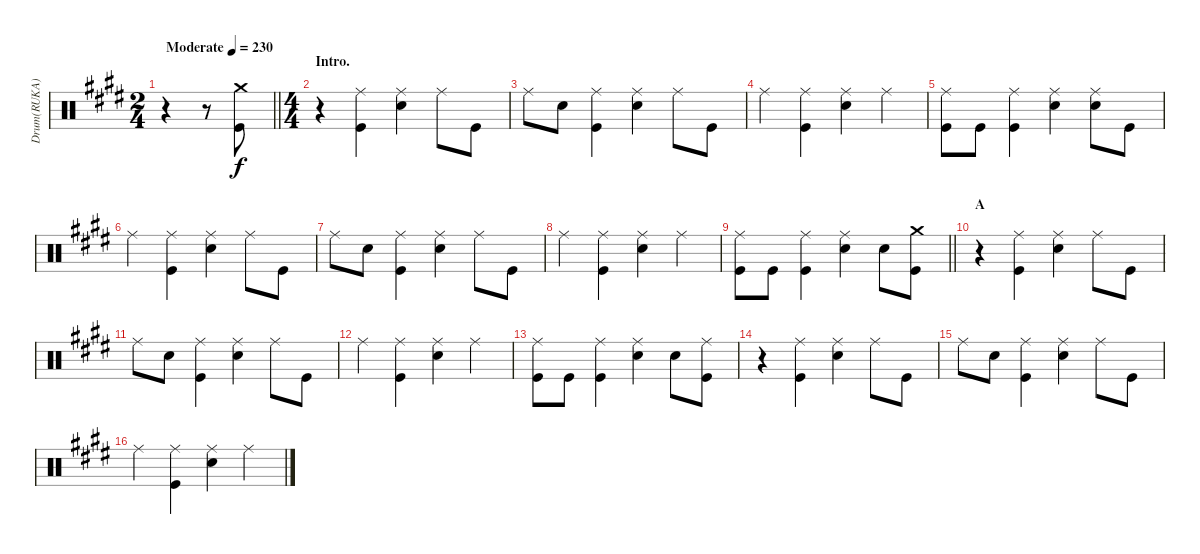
\track ("Drum(RUKA)" "Drum(RUKA)") {instrument percussion}
\staff {score}
\articulation defaults
\ts (2 4)
\tempo (230 "Moderate")
\clef neutral
\barLineRight lightlight
\ks e
r.4{dy f} r.8 ("Crash medium (hit)" "Kick (hit)").8 |
\ts (4 4)
\section ("" "Intro.")
r.4 ("Ride (middle)" "Kick (hit)").4 ("Ride (middle)" "Electric Snare (hit)").4 "Ride (middle)".8 "Kick (hit)".8 |
"Ride (middle)".8 "Electric Snare (hit)".8 ("Ride (middle)" "Kick (hit)").4 ("Ride (middle)" "Electric Snare (hit)").4 "Ride (middle)".8 "Kick (hit)".8 |
"Ride (middle)".4 ("Ride (middle)" "Kick (hit)").4 ("Ride (middle)" "Electric Snare (hit)").4 "Ride (middle)".4 |
("Ride (middle)" "Kick (hit)").8 "Kick (hit)".8 ("Ride (middle)" "Kick (hit)").4 ("Ride (middle)" "Electric Snare (hit)").4 ("Ride (middle)" "Electric Snare (hit)").8 "Kick (hit)".8 |
"Ride (middle)".4 ("Ride (middle)" "Kick (hit)").4 ("Ride (middle)" "Electric Snare (hit)").4 "Ride (middle)".8 "Kick (hit)".8 |
"Ride (middle)".8 "Electric Snare (hit)".8 ("Ride (middle)" "Kick (hit)").4 ("Ride (middle)" "Electric Snare (hit)").4 "Ride (middle)".8 "Kick (hit)".8 |
"Ride (middle)".4 ("Ride (middle)" "Kick (hit)").4 ("Ride (middle)" "Electric Snare (hit)").4 "Ride (middle)".4 |
\barLineRight lightlight
("Ride (middle)" "Kick (hit)").8 "Kick (hit)".8 ("Ride (middle)" "Kick (hit)").4 ("Ride (middle)" "Electric Snare (hit)").4 "Electric Snare (hit)".8 ("Crash medium (hit)" "Kick (hit)").8 |
\section ("" "A")
r.4 ("Ride (middle)" "Kick (hit)").4 ("Ride (middle)" "Electric Snare (hit)").4 "Ride (middle)".8 "Kick (hit)".8 |
"Ride (middle)".8 "Electric Snare (hit)".8 ("Ride (middle)" "Kick (hit)").4 ("Ride (middle)" "Electric Snare (hit)").4 "Ride (middle)".8 "Kick (hit)".8 |
"Ride (middle)".4 ("Ride (middle)" "Kick (hit)").4 ("Ride (middle)" "Electric Snare (hit)").4 "Ride (middle)".4 |
("Ride (middle)" "Kick (hit)").8 "Kick (hit)".8 ("Ride (middle)" "Kick (hit)").4 ("Ride (middle)" "Electric Snare (hit)").4 "Electric Snare (hit)".8 ("Ride (middle)" "Kick (hit)").8 |
r.4 ("Ride (middle)" "Kick (hit)").4 ("Ride (middle)" "Electric Snare (hit)").4 "Ride (middle)".8 "Kick (hit)".8 |
"Ride (middle)".8 "Electric Snare (hit)".8 ("Ride (middle)" "Kick (hit)").4 ("Ride (middle)" "Electric Snare (hit)").4 "Ride (middle)".8 "Kick (hit)".8 |
"Ride (middle)".4 ("Ride (middle)" "Kick (hit)").4 ("Ride (middle)" "Electric Snare (hit)").4 "Ride (middle)".4
